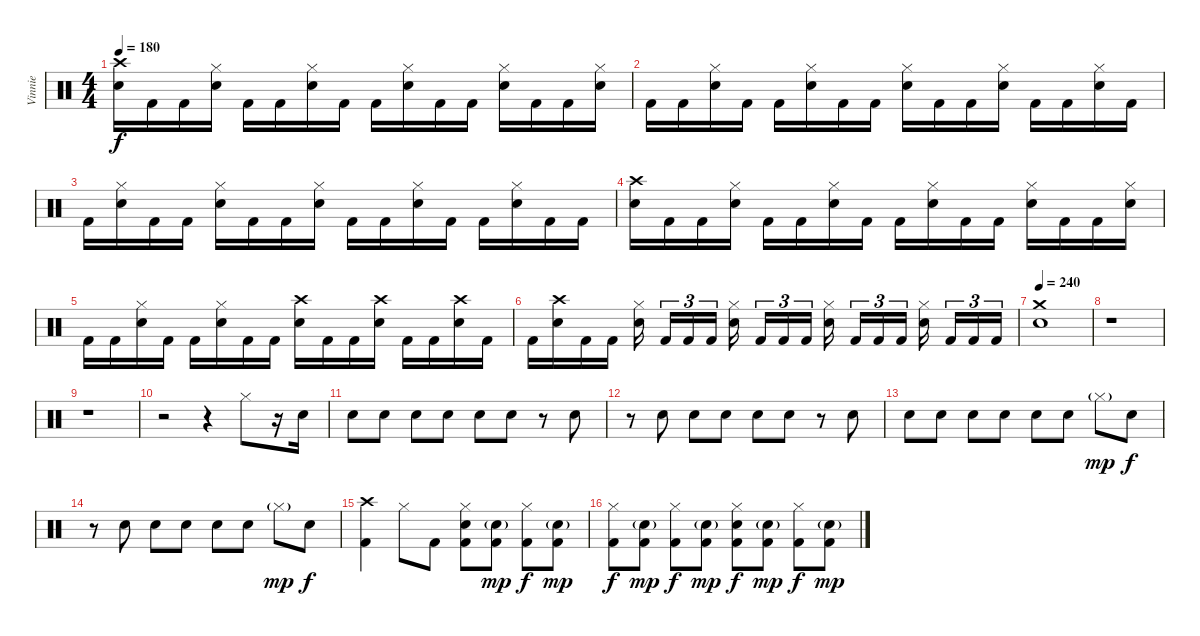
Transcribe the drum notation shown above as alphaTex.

\track ("Vinnie" "Vinnie") {instrument percussion}
\staff {score}
\articulation defaults
\ts (4 4)
\tempo 180
\clef neutral
\ks c
("Crash high (hit)" "Electric Snare (hit)").16{dy f} "Kick (hit) 2".16 "Kick (hit) 2".16 ("Hi-Hat (closed)" "Electric Snare (hit)").16 "Kick (hit) 2".16 "Kick (hit) 2".16 ("Hi-Hat (closed)" "Electric Snare (hit)").16 "Kick (hit) 2".16 "Kick (hit) 2".16 ("Hi-Hat (closed)" "Electric Snare (hit)").16 "Kick (hit) 2".16 "Kick (hit) 2".16 ("Hi-Hat (closed)" "Electric Snare (hit)").16 "Kick (hit) 2".16 "Kick (hit) 2".16 ("Hi-Hat (closed)" "Electric Snare (hit)").16 |
"Kick (hit) 2".16 "Kick (hit) 2".16 ("Hi-Hat (closed)" "Electric Snare (hit)").16 "Kick (hit) 2".16 "Kick (hit) 2".16 ("Hi-Hat (closed)" "Electric Snare (hit)").16 "Kick (hit) 2".16 "Kick (hit) 2".16 ("Hi-Hat (closed)" "Electric Snare (hit)").16 "Kick (hit) 2".16 "Kick (hit) 2".16 ("Hi-Hat (closed)" "Electric Snare (hit)").16 "Kick (hit) 2".16 "Kick (hit) 2".16 ("Hi-Hat (closed)" "Electric Snare (hit)").16 "Kick (hit) 2".16 |
"Kick (hit) 2".16 ("Hi-Hat (closed)" "Electric Snare (hit)").16 "Kick (hit) 2".16 "Kick (hit) 2".16 ("Hi-Hat (closed)" "Electric Snare (hit)").16 "Kick (hit) 2".16 "Kick (hit) 2".16 ("Hi-Hat (closed)" "Electric Snare (hit)").16 "Kick (hit) 2".16 "Kick (hit) 2".16 ("Hi-Hat (closed)" "Electric Snare (hit)").16 "Kick (hit) 2".16 "Kick (hit) 2".16 ("Hi-Hat (closed)" "Electric Snare (hit)").16 "Kick (hit) 2".16 "Kick (hit) 2".16 |
("Crash high (hit)" "Electric Snare (hit)").16 "Kick (hit) 2".16 "Kick (hit) 2".16 ("Hi-Hat (closed)" "Electric Snare (hit)").16 "Kick (hit) 2".16 "Kick (hit) 2".16 ("Hi-Hat (closed)" "Electric Snare (hit)").16 "Kick (hit) 2".16 "Kick (hit) 2".16 ("Hi-Hat (closed)" "Electric Snare (hit)").16 "Kick (hit) 2".16 "Kick (hit) 2".16 ("Hi-Hat (closed)" "Electric Snare (hit)").16 "Kick (hit) 2".16 "Kick (hit) 2".16 ("Hi-Hat (closed)" "Electric Snare (hit)").16 |
"Kick (hit) 2".16 "Kick (hit) 2".16 ("Hi-Hat (closed)" "Electric Snare (hit)").16 "Kick (hit) 2".16 "Kick (hit) 2".16 ("Hi-Hat (closed)" "Electric Snare (hit)").16 "Kick (hit) 2".16 "Kick (hit) 2".16 ("Crash high (hit)" "Electric Snare (hit)").16 "Kick (hit) 2".16 "Kick (hit) 2".16 ("Crash high (hit)" "Electric Snare (hit)").16 "Kick (hit) 2".16 "Kick (hit) 2".16 ("Crash high (hit)" "Electric Snare (hit)").16 "Kick (hit) 2".16 |
"Kick (hit) 2".16 ("Crash high (hit)" "Electric Snare (hit)").16 "Kick (hit) 2".16 "Kick (hit) 2".16 ("Hi-Hat (closed)" "Electric Snare (hit)").16 "Kick (hit) 2".16{tu (3 2)} "Kick (hit) 2".16{tu (3 2)} "Kick (hit) 2".16{tu (3 2)} ("Hi-Hat (closed)" "Electric Snare (hit)").16 "Kick (hit) 2".16{tu (3 2)} "Kick (hit) 2".16{tu (3 2)} "Kick (hit) 2".16{tu (3 2)} ("Hi-Hat (closed)" "Electric Snare (hit)").16 "Kick (hit) 2".16{tu (3 2)} "Kick (hit) 2".16{tu (3 2)} "Kick (hit) 2".16{tu (3 2)} ("Hi-Hat (closed)" "Electric Snare (hit)").16 "Kick (hit) 2".16{tu (3 2)} "Kick (hit) 2".16{tu (3 2)} "Kick (hit) 2".16{tu (3 2)} |
\tempo 240
("Crash medium (hit)" "Electric Snare (hit)").1 |
r.1 |
r.1 |
r.2 r.4 "Hi-Hat (closed)".8 r.16 "Electric Snare (hit)".16 |
"Electric Snare (hit)".8 "Electric Snare (hit)".8 "Electric Snare (hit)".8 "Electric Snare (hit)".8 "Electric Snare (hit)".8 "Electric Snare (hit)".8 r.8 "Electric Snare (hit)".8 |
r.8 "Electric Snare (hit)".8 "Electric Snare (hit)".8 "Electric Snare (hit)".8 "Electric Snare (hit)".8 "Electric Snare (hit)".8 r.8 "Electric Snare (hit)".8 |
"Electric Snare (hit)".8 "Electric Snare (hit)".8 "Electric Snare (hit)".8 "Electric Snare (hit)".8 "Electric Snare (hit)".8 "Electric Snare (hit)".8 "Hi-Hat (closed)"{g}.8{dy mp} "Electric Snare (hit)".8{dy f} |
r.8 "Electric Snare (hit)".8 "Electric Snare (hit)".8 "Electric Snare (hit)".8 "Electric Snare (hit)".8 "Electric Snare (hit)".8 "Hi-Hat (closed)"{g}.8{dy mp} "Electric Snare (hit)".8{dy f} |
("Crash high (hit)" "Kick (hit) 2").4 "Hi-Hat (closed)".8 "Kick (hit) 2".8 ("Hi-Hat (closed)" "Electric Snare (hit)" "Kick (hit) 2").8 ("Electric Snare (hit)"{g} "Kick (hit) 2").8{dy mp} ("Hi-Hat (closed)" "Kick (hit) 2").8{dy f} ("Electric Snare (hit)"{g} "Kick (hit) 2").8{dy mp} |
("Hi-Hat (closed)" "Kick (hit) 2").8{dy f} ("Electric Snare (hit)"{g} "Kick (hit) 2").8{dy mp} ("Hi-Hat (closed)" "Kick (hit) 2").8{dy f} ("Electric Snare (hit)"{g} "Kick (hit) 2").8{dy mp} ("Hi-Hat (closed)" "Electric Snare (hit)" "Kick (hit) 2").8{dy f} ("Electric Snare (hit)"{g} "Kick (hit) 2").8{dy mp} ("Hi-Hat (closed)" "Kick (hit) 2").8{dy f} ("Electric Snare (hit)"{g} "Kick (hit) 2").8{dy mp}
